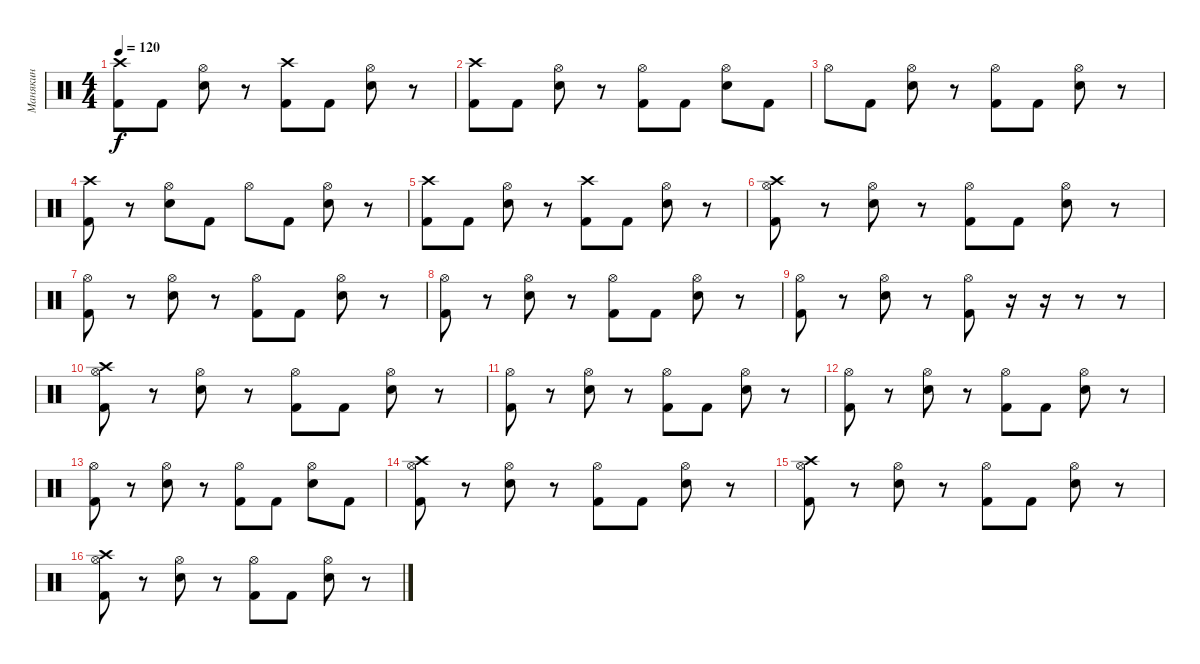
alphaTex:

\track ("Манякин" "Манякин") {instrument percussion}
\staff {score}
\articulation defaults
\ts (4 4)
\tempo 120
\clef neutral
\ks c
("Crash high (hit)" "Kick (hit) 2").8{dy f} "Kick (hit) 2".8 ("Hi-Hat (open)" "Electric Snare (hit)").8 r.8 ("Crash high (hit)" "Kick (hit) 2").8 "Kick (hit) 2".8 ("Hi-Hat (open)" "Electric Snare (hit)").8 r.8 |
("Crash high (hit)" "Kick (hit) 2").8 "Kick (hit) 2".8 ("Hi-Hat (open)" "Electric Snare (hit)").8 r.8 ("Hi-Hat (open)" "Kick (hit) 2").8 "Kick (hit) 2".8 ("Hi-Hat (open)" "Electric Snare (hit)").8 "Kick (hit) 2".8 |
"Hi-Hat (open)".8 "Kick (hit) 2".8 ("Hi-Hat (open)" "Electric Snare (hit)").8 r.8 ("Hi-Hat (open)" "Kick (hit) 2").8 "Kick (hit) 2".8 ("Hi-Hat (open)" "Electric Snare (hit)").8 r.8 |
("Crash high (hit)" "Kick (hit) 2").8 r.8 ("Hi-Hat (open)" "Electric Snare (hit)").8 "Kick (hit) 2".8 "Hi-Hat (open)".8 "Kick (hit) 2".8 ("Hi-Hat (open)" "Electric Snare (hit)").8 r.8 |
("Crash high (hit)" "Kick (hit) 2").8 "Kick (hit) 2".8 ("Hi-Hat (open)" "Electric Snare (hit)").8 r.8 ("Crash high (hit)" "Kick (hit) 2").8 "Kick (hit) 2".8 ("Hi-Hat (open)" "Electric Snare (hit)").8 r.8 |
("Crash high (hit)" "Hi-Hat (open)" "Kick (hit) 2").8 r.8 ("Hi-Hat (open)" "Electric Snare (hit)").8 r.8 ("Hi-Hat (open)" "Kick (hit) 2").8 "Kick (hit) 2".8 ("Hi-Hat (open)" "Electric Snare (hit)").8 r.8 |
("Hi-Hat (open)" "Kick (hit) 2").8 r.8 ("Hi-Hat (open)" "Electric Snare (hit)").8 r.8 ("Hi-Hat (open)" "Kick (hit) 2").8 "Kick (hit) 2".8 ("Hi-Hat (open)" "Electric Snare (hit)").8 r.8 |
("Hi-Hat (open)" "Kick (hit) 2").8 r.8 ("Hi-Hat (open)" "Electric Snare (hit)").8 r.8 ("Hi-Hat (open)" "Kick (hit) 2").8 "Kick (hit) 2".8 ("Hi-Hat (open)" "Electric Snare (hit)").8 r.8 |
("Hi-Hat (open)" "Kick (hit) 2").8 r.8 ("Hi-Hat (open)" "Electric Snare (hit)").8 r.8 ("Hi-Hat (open)" "Kick (hit) 2").8 r.16 r.16 r.8 r.8 |
("Crash high (hit)" "Hi-Hat (open)" "Kick (hit) 2").8 r.8 ("Hi-Hat (open)" "Electric Snare (hit)").8 r.8 ("Hi-Hat (open)" "Kick (hit) 2").8 "Kick (hit) 2".8 ("Hi-Hat (open)" "Electric Snare (hit)").8 r.8 |
("Hi-Hat (open)" "Kick (hit) 2").8 r.8 ("Hi-Hat (open)" "Electric Snare (hit)").8 r.8 ("Hi-Hat (open)" "Kick (hit) 2").8 "Kick (hit) 2".8 ("Hi-Hat (open)" "Electric Snare (hit)").8 r.8 |
("Hi-Hat (open)" "Kick (hit) 2").8 r.8 ("Hi-Hat (open)" "Electric Snare (hit)").8 r.8 ("Hi-Hat (open)" "Kick (hit) 2").8 "Kick (hit) 2".8 ("Hi-Hat (open)" "Electric Snare (hit)").8 r.8 |
("Hi-Hat (open)" "Kick (hit) 2").8 r.8 ("Hi-Hat (open)" "Electric Snare (hit)").8 r.8 ("Hi-Hat (open)" "Kick (hit) 2").8 "Kick (hit) 2".8 ("Hi-Hat (open)" "Electric Snare (hit)").8 "Kick (hit) 2".8 |
("Crash high (hit)" "Hi-Hat (open)" "Kick (hit) 2").8 r.8 ("Hi-Hat (open)" "Electric Snare (hit)").8 r.8 ("Hi-Hat (open)" "Kick (hit) 2").8 "Kick (hit) 2".8 ("Hi-Hat (open)" "Electric Snare (hit)").8 r.8 |
("Crash high (hit)" "Hi-Hat (open)" "Kick (hit) 2").8 r.8 ("Hi-Hat (open)" "Electric Snare (hit)").8 r.8 ("Hi-Hat (open)" "Kick (hit) 2").8 "Kick (hit) 2".8 ("Hi-Hat (open)" "Electric Snare (hit)").8 r.8 |
("Crash high (hit)" "Hi-Hat (open)" "Kick (hit) 2").8 r.8 ("Hi-Hat (open)" "Electric Snare (hit)").8 r.8 ("Hi-Hat (open)" "Kick (hit) 2").8 "Kick (hit) 2".8 ("Hi-Hat (open)" "Electric Snare (hit)").8 r.8
